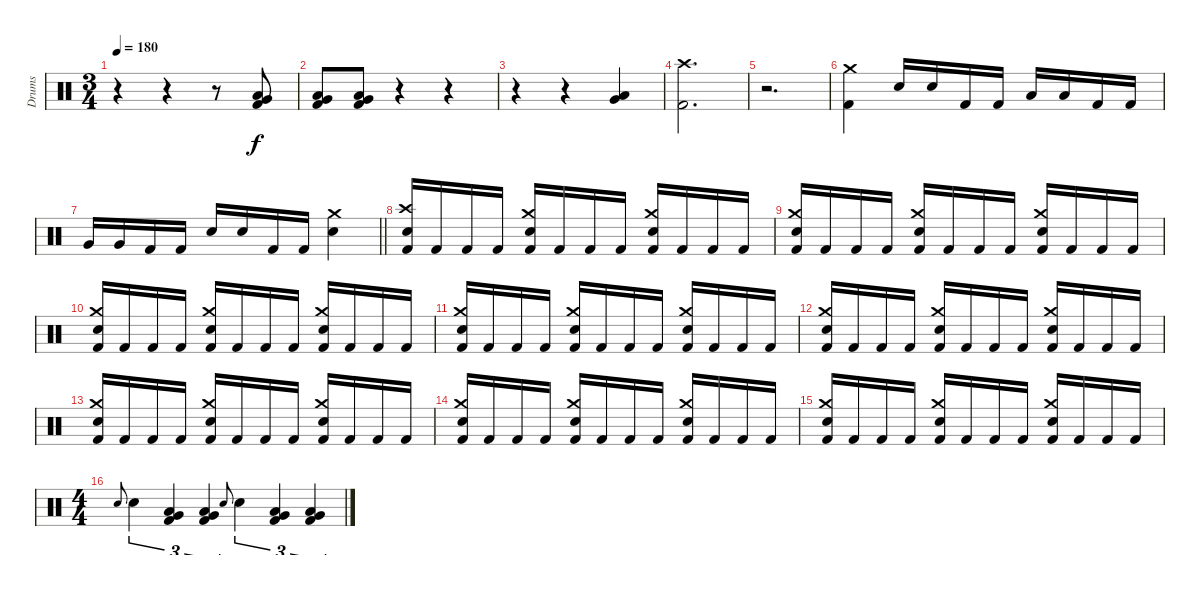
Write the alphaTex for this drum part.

\track ("Drums" "Drums") {instrument percussion}
\staff {score}
\articulation defaults
\ts (3 4)
\tempo 180
\clef neutral
\ks c
r.4{dy f} r.4 r.8 ("Low Tom (hit)" "Very Low Tom (hit)" "Kick (hit) 2").8 |
("Low Tom (hit)" "Very Low Tom (hit)" "Kick (hit) 2").8 ("Low Tom (hit)" "Very Low Tom (hit)" "Kick (hit) 2").8 r.4 r.4 |
r.4 r.4 ("Very Low Tom (hit)" "Low Floor Tom (hit)").4 |
("Crash high (hit)" "Kick (hit) 2").2{d} |
r.2{d} |
("Crash medium (hit)" "Kick (hit) 2").4 "Electric Snare (hit)".16 "Electric Snare (hit)".16 "Kick (hit) 2".16 "Kick (hit) 2".16 "Low Tom (hit)".16 "Low Tom (hit)".16 "Kick (hit) 2".16 "Kick (hit) 2".16 |
\barLineRight lightlight "Very Low Tom (hit)".16 "Very Low Tom (hit)".16 "Kick (hit) 2".16 "Kick (hit) 2".16 "Electric Snare (hit)".16 "Electric Snare (hit)".16 "Kick (hit) 2".16 "Kick (hit) 2".16
("Crash medium (hit)" "Electric Snare (hit)").4 |
("Crash high (hit)" "Electric Snare (hit)" "Kick (hit) 2").16 "Kick (hit) 2".16 "Kick (hit) 2".16 "Kick (hit) 2".16 ("Crash medium (hit)" "Electric Snare (hit)" "Kick (hit) 2").16 "Kick (hit) 2".16 "Kick (hit) 2".16 "Kick (hit) 2".16 ("Crash medium (hit)" "Electric Snare (hit)" "Kick (hit) 2").16 "Kick (hit) 2".16 "Kick (hit) 2".16 "Kick (hit) 2".16 |
("Crash medium (hit)" "Electric Snare (hit)" "Kick (hit) 2").16 "Kick (hit) 2".16 "Kick (hit) 2".16 "Kick (hit) 2".16 ("Crash medium (hit)" "Electric Snare (hit)" "Kick (hit) 2").16 "Kick (hit) 2".16 "Kick (hit) 2".16 "Kick (hit) 2".16 ("Crash medium (hit)" "Electric Snare (hit)" "Kick (hit) 2").16 "Kick (hit) 2".16 "Kick (hit) 2".16 "Kick (hit) 2".16 |
("Crash medium (hit)" "Electric Snare (hit)" "Kick (hit) 2").16 "Kick (hit) 2".16 "Kick (hit) 2".16 "Kick (hit) 2".16 ("Crash medium (hit)" "Electric Snare (hit)" "Kick (hit) 2").16 "Kick (hit) 2".16 "Kick (hit) 2".16 "Kick (hit) 2".16 ("Crash medium (hit)" "Electric Snare (hit)" "Kick (hit) 2").16 "Kick (hit) 2".16 "Kick (hit) 2".16 "Kick (hit) 2".16 |
("Crash medium (hit)" "Electric Snare (hit)" "Kick (hit) 2").16 "Kick (hit) 2".16 "Kick (hit) 2".16 "Kick (hit) 2".16 ("Crash medium (hit)" "Electric Snare (hit)" "Kick (hit) 2").16 "Kick (hit) 2".16 "Kick (hit) 2".16 "Kick (hit) 2".16 ("Crash medium (hit)" "Electric Snare (hit)" "Kick (hit) 2").16 "Kick (hit) 2".16 "Kick (hit) 2".16 "Kick (hit) 2".16 |
("Crash medium (hit)" "Electric Snare (hit)" "Kick (hit) 2").16 "Kick (hit) 2".16 "Kick (hit) 2".16 "Kick (hit) 2".16 ("Crash medium (hit)" "Electric Snare (hit)" "Kick (hit) 2").16 "Kick (hit) 2".16 "Kick (hit) 2".16 "Kick (hit) 2".16 ("Crash medium (hit)" "Electric Snare (hit)" "Kick (hit) 2").16 "Kick (hit) 2".16 "Kick (hit) 2".16 "Kick (hit) 2".16 |
("Crash medium (hit)" "Electric Snare (hit)" "Kick (hit) 2").16 "Kick (hit) 2".16 "Kick (hit) 2".16 "Kick (hit) 2".16 ("Crash medium (hit)" "Electric Snare (hit)" "Kick (hit) 2").16 "Kick (hit) 2".16 "Kick (hit) 2".16 "Kick (hit) 2".16 ("Crash medium (hit)" "Electric Snare (hit)" "Kick (hit) 2").16 "Kick (hit) 2".16 "Kick (hit) 2".16 "Kick (hit) 2".16 |
("Crash medium (hit)" "Electric Snare (hit)" "Kick (hit) 2").16 "Kick (hit) 2".16 "Kick (hit) 2".16 "Kick (hit) 2".16 ("Crash medium (hit)" "Electric Snare (hit)" "Kick (hit) 2").16 "Kick (hit) 2".16 "Kick (hit) 2".16 "Kick (hit) 2".16 ("Crash medium (hit)" "Electric Snare (hit)" "Kick (hit) 2").16 "Kick (hit) 2".16 "Kick (hit) 2".16 "Kick (hit) 2".16 |
("Crash medium (hit)" "Electric Snare (hit)" "Kick (hit) 2").16 "Kick (hit) 2".16 "Kick (hit) 2".16 "Kick (hit) 2".16 ("Crash medium (hit)" "Electric Snare (hit)" "Kick (hit) 2").16 "Kick (hit) 2".16 "Kick (hit) 2".16 "Kick (hit) 2".16 ("Crash medium (hit)" "Electric Snare (hit)" "Kick (hit) 2").16 "Kick (hit) 2".16 "Kick (hit) 2".16 "Kick (hit) 2".16 |
\ts (4 4)
"Electric Snare (hit)".8{gr onbeat} "Electric Snare (hit)".4{tu (3 2)} ("Low Tom (hit)" "Very Low Tom (hit)" "Kick (hit) 2").4{tu (3 2)} ("Very Low Tom (hit)" "Low Floor Tom (hit)" "Kick (hit) 2").4{tu (3 2)} "Electric Snare (hit)".8{gr onbeat} "Electric Snare (hit)".4{tu (3 2)} ("Low Tom (hit)" "Very Low Tom (hit)" "Kick (hit) 2").4{tu (3 2)} ("Very Low Tom (hit)" "Low Floor Tom (hit)" "Kick (hit) 2").4{tu (3 2)}
